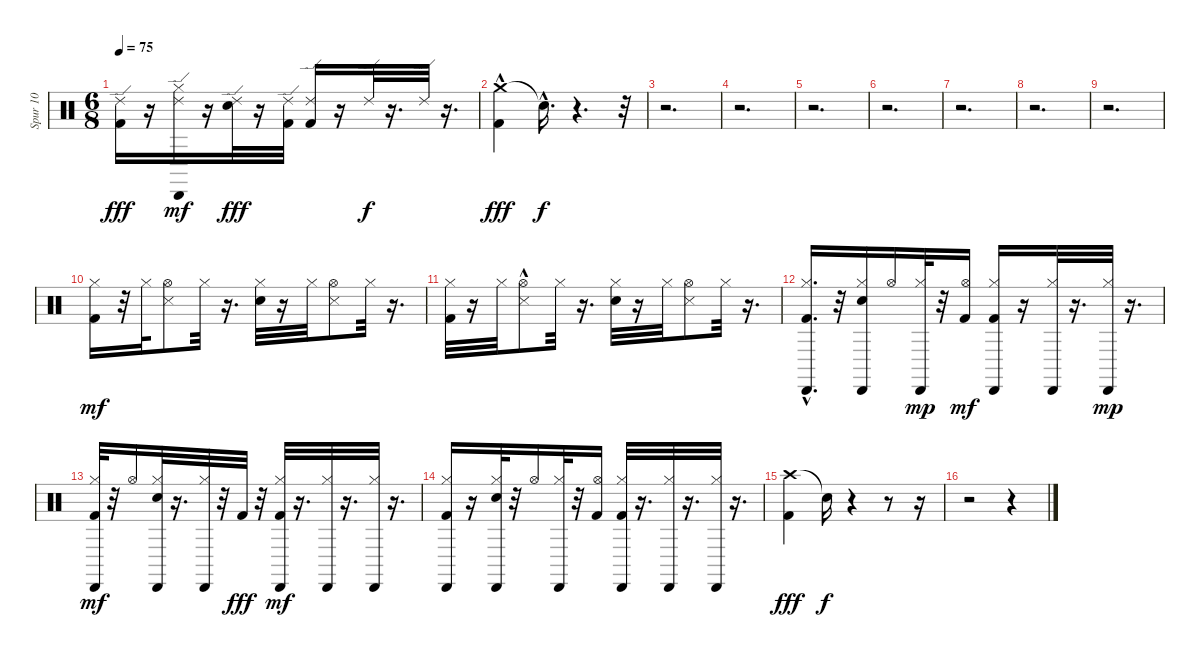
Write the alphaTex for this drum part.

\track ("Spur 10" "Spur 10") {instrument percussion}
\staff {score}
\articulation defaults
\ts (6 8)
\tempo 75
\clef neutral
\ks c
("Kick (hit) 2" "Ride (edge) 2").16{dy fff} r.16 ("Cabasa (hit)" "Hi-Hat (closed)" "Ride (edge) 2").16{dy mf} r.16 ("Snare (hit) 2" "Ride (edge) 2").32{dy fff} r.16 ("Kick (hit) 2" "Ride (edge) 2").32 ("Kick (hit) 2" "Ride (edge) 2").16 r.16 "Ride (edge) 2".32{dy f} r.16{d} "Ride (edge) 2".32 r.16{d} |
("Crash medium (hit)"{hac} "Kick (hit) 2").4{dy fff} "Snare (hit)"{hac t}.16{d dy f} r.4{d} r.32 |
r.2{d} |
r.2{d} |
r.2{d} |
r.2{d} |
r.2{d} |
r.2{d} |
r.2{d} |
("Kick (hit) 2" "Hi-Hat (closed)").16{dy mf} r.32 "Hi-Hat (closed)".32 ("Snare (side stick) 3" "Hi-Hat (open)").8 "Hi-Hat (closed)".32 r.16{d} ("Snare (hit) 2" "Hi-Hat (closed)").32 r.16 "Hi-Hat (closed)".32 ("Snare (side stick) 3" "Hi-Hat (open)").8 "Hi-Hat (closed)".32 r.16{d} |
("Kick (hit) 2" "Hi-Hat (closed)").32 r.16 "Hi-Hat (closed)".32 ("Snare (side stick) 3"{hac} "Hi-Hat (open)").8 "Hi-Hat (closed)".32 r.16{d} ("Snare (hit) 2" "Hi-Hat (closed)").32 r.16 "Hi-Hat (closed)".32 ("Snare (side stick) 3" "Hi-Hat (open)").8 "Hi-Hat (closed)".32 r.16{d} |
("Cabasa (hit)" "Kick (hit) 2"{hac} "Hi-Hat (closed)").16{d} r.32 ("Cabasa (hit)" "Snare (hit) 2" "Hi-Hat (closed)").16 "Hi-Hat (open)".16 ("Cabasa (hit)" "Hi-Hat (closed)").32{dy mp} r.32 ("Kick (hit) 2" "Hi-Hat (open)").16{dy mf} ("Cabasa (hit)" "Kick (hit) 2" "Hi-Hat (closed)").16 r.16 ("Cabasa (hit)" "Hi-Hat (closed)").32 r.16{d} ("Cabasa (hit)" "Hi-Hat (closed)").32{dy mp} r.16{d} |
("Cabasa (hit)" "Kick (hit) 2" "Hi-Hat (closed)").32{dy mf} r.32 "Hi-Hat (open)".16 ("Cabasa (hit)" "Snare (hit) 2" "Hi-Hat (closed)").32 r.16{d} ("Cabasa (hit)" "Hi-Hat (closed)").32 r.32 "Kick (hit) 2".32{dy fff} r.32 ("Cabasa (hit)" "Kick (hit) 2" "Hi-Hat (closed)").32{dy mf} r.16{d} ("Cabasa (hit)" "Hi-Hat (closed)").32 r.16{d} ("Cabasa (hit)" "Hi-Hat (closed)").32 r.16{d} |
("Cabasa (hit)" "Kick (hit) 2" "Hi-Hat (closed)").16 r.16 ("Cabasa (hit)" "Snare (hit) 2" "Hi-Hat (closed)").32 r.32 "Hi-Hat (open)".16 ("Cabasa (hit)" "Hi-Hat (closed)").32 r.32 ("Kick (hit) 2" "Hi-Hat (open)").16 ("Cabasa (hit)" "Kick (hit) 2" "Hi-Hat (closed)").32 r.16{d} ("Cabasa (hit)" "Hi-Hat (closed)").32 r.16{d} ("Cabasa (hit)" "Hi-Hat (closed)").32 r.16{d} |
("Crash high (hit)" "Kick (hit) 2").4{dy fff} "Snare (hit)"{t}.16{dy f} r.4 r.8 r.16 |
r.2 r.4
